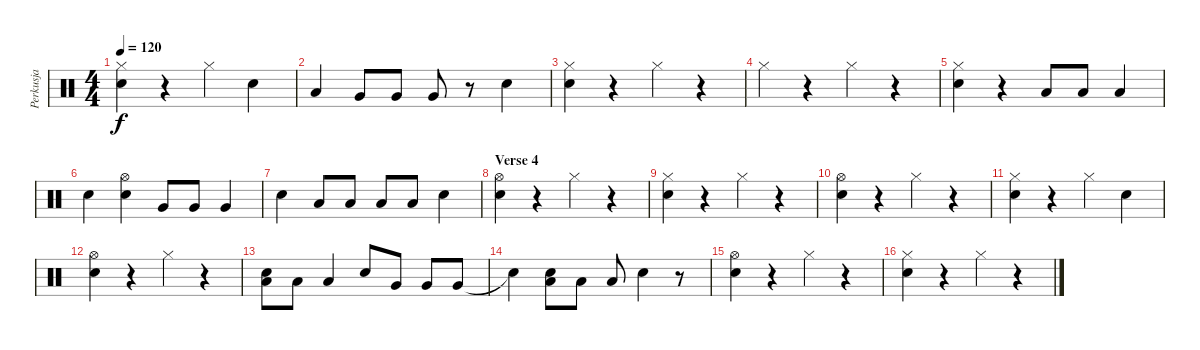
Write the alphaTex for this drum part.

\track ("Perkusja" "Perkusja") {instrument percussion}
\staff {score}
\articulation defaults
\ts (4 4)
\tempo 120
\clef neutral
\ks c
("Snare (hit) 2" "Hi-Hat (closed)").4{dy f} r.4 "Hi-Hat (closed)".4 "Snare (hit) 2".4 |
"Low Floor Tom (hit)".4 "Very Low Tom (hit)".8 "Very Low Tom (hit)".8 "Very Low Tom (hit)".8 r.8 "Snare (hit) 2".4 |
("Snare (hit) 2" "Hi-Hat (closed)").4 r.4 "Hi-Hat (closed)".4 r.4 |
"Hi-Hat (closed)".4 r.4 "Hi-Hat (closed)".4 r.4 |
("Snare (hit) 2" "Hi-Hat (closed)").4 r.4 "Low Floor Tom (hit)".8 "Low Floor Tom (hit)".8 "Low Floor Tom (hit)".4 |
"Snare (hit) 2".4 ("Snare (hit) 2" "Hi-Hat (open)").4 "Very Low Tom (hit)".8 "Very Low Tom (hit)".8 "Very Low Tom (hit)".4 |
"Snare (hit) 2".4 "Low Tom (hit)".8 "Low Tom (hit)".8 "Low Tom (hit)".8 "Low Tom (hit)".8 "Snare (hit) 2".4 |
\section ("" "Verse 4")
("Snare (hit) 2" "Hi-Hat (open)").4 r.4 "Hi-Hat (closed)".4 r.4 |
("Snare (hit) 2" "Hi-Hat (closed)").4 r.4 "Hi-Hat (closed)".4 r.4 |
("Snare (hit) 2" "Hi-Hat (open)").4 r.4 "Hi-Hat (closed)".4 r.4 |
("Snare (hit) 2" "Hi-Hat (closed)").4 r.4 "Hi-Hat (closed)".4 "Snare (hit) 2".4 |
("Snare (hit) 2" "Hi-Hat (open)").4 r.4 "Hi-Hat (closed)".4 r.4 |
("Snare (hit) 2" "Low Floor Tom (hit)").8 "Low Floor Tom (hit)".8 "Low Floor Tom (hit)".4 "Snare (hit) 2".8 "Very Low Tom (hit)".8 "Very Low Tom (hit)".8 "Very Low Tom (hit)".8 |
"Snare (hit) 2"{t}.4 ("Snare (hit) 2" "Low Tom (hit)").8 "Low Tom (hit)".8 "Low Tom (hit)".8 "Snare (hit) 2".4 r.8 |
("Snare (hit) 2" "Hi-Hat (open)").4 r.4 "Hi-Hat (closed)".4 r.4 |
("Snare (hit) 2" "Hi-Hat (closed)").4 r.4 "Hi-Hat (closed)".4 r.4
